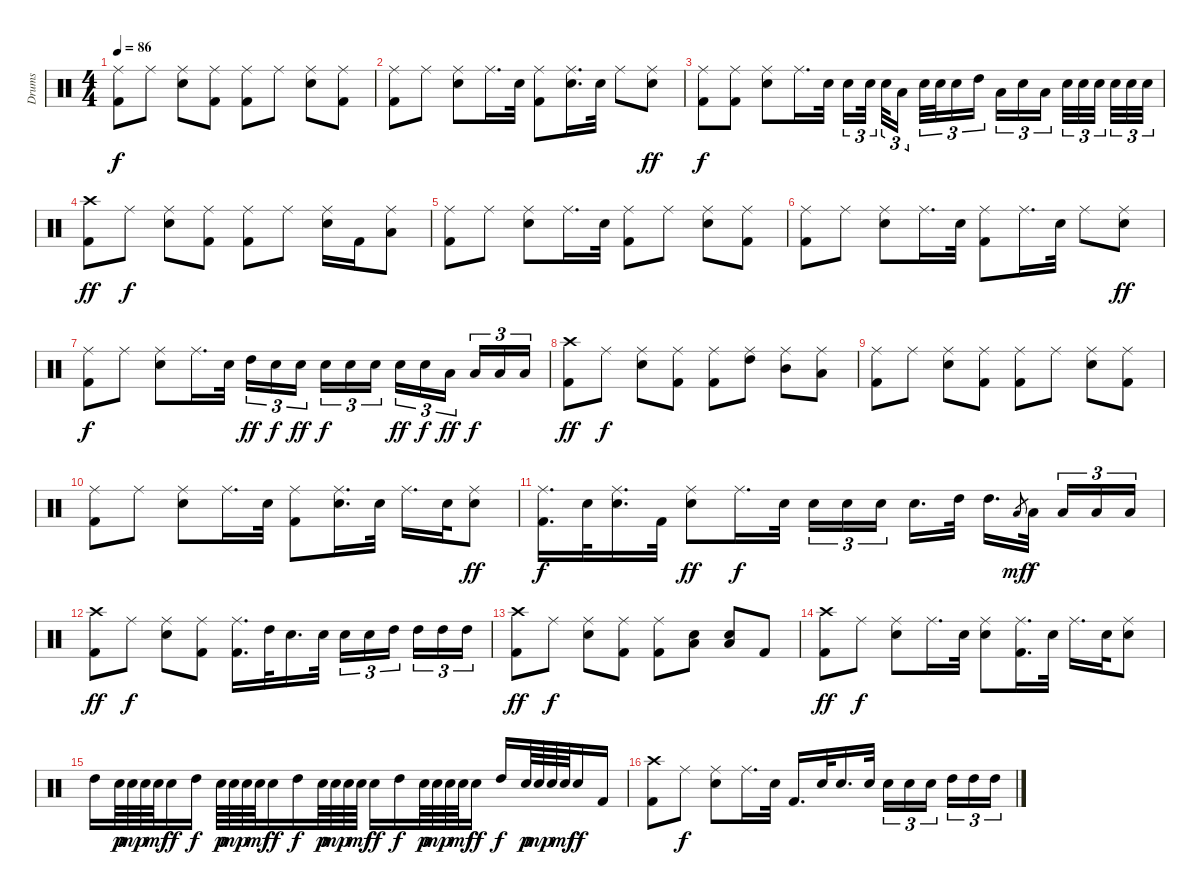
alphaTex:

\track ("Drums" "Drums") {instrument percussion}
\staff {score}
\articulation defaults
\ts (4 4)
\tempo 86
\clef neutral
\ks c
("Ride (middle)" "Kick (hit) 2").8{dy f} "Ride (middle)".8 ("Ride (middle)" "Electric Snare (hit)").8 ("Ride (middle)" "Kick (hit) 2").8 ("Ride (middle)" "Kick (hit) 2").8 "Ride (middle)".8 ("Ride (middle)" "Electric Snare (hit)").8 ("Ride (middle)" "Kick (hit) 2").8 |
("Ride (middle)" "Kick (hit) 2").8 "Ride (middle)".8 ("Ride (middle)" "Electric Snare (hit)").8 "Ride (middle)".16{d} "Electric Snare (hit)".32 ("Ride (middle)" "Kick (hit) 2").8 ("Ride (middle)" "Electric Snare (hit)").16{d} "Electric Snare (hit)".32 "Ride (middle)".8 ("Ride (middle)" "Electric Snare (hit)").8{dy ff} |
("Ride (middle)" "Kick (hit) 2").8{dy f} ("Ride (middle)" "Kick (hit) 2").8 ("Ride (middle)" "Electric Snare (hit)").8 "Ride (middle)".16{d} "Electric Snare (hit)".32 "Electric Snare (hit)".16{tu (3 2)} "Electric Snare (hit)".32{tu (3 2)} "Electric Snare (hit)".32{tu (3 2)} "Low Tom (hit)".16{tu (3 2)} "Electric Snare (hit)".32{tu (3 2)} "Electric Snare (hit)".32{tu (3 2)} "Electric Snare (hit)".16{tu (3 2)} "High Tom (hit)".16{tu (3 2)} "Low Tom (hit)".16{tu (3 2)} "Electric Snare (hit)".16{tu (3 2)} "Low Tom (hit)".16{tu (3 2)} "Electric Snare (hit)".32{tu (3 2)} "Electric Snare (hit)".32{tu (3 2)} "Electric Snare (hit)".32{tu (3 2)} "Electric Snare (hit)".32{tu (3 2)} "Electric Snare (hit)".32{tu (3 2)} "Electric Snare (hit)".32{tu (3 2)} |
("Crash high (hit)" "Kick (hit) 2").8{dy ff} "Ride (middle)".8{dy f} ("Ride (middle)" "Electric Snare (hit)").8 ("Ride (middle)" "Kick (hit) 2").8 ("Ride (middle)" "Kick (hit) 2").8 "Ride (middle)".8 ("Ride (middle)" "Electric Snare (hit)").16 "Kick (hit) 2".16 ("Ride (middle)" "Low Tom (hit)").8 |
("Ride (middle)" "Kick (hit) 2").8 "Ride (middle)".8 ("Ride (middle)" "Electric Snare (hit)").8 "Ride (middle)".16{d} "Electric Snare (hit)".32 ("Ride (middle)" "Kick (hit) 2").8 "Ride (middle)".8 ("Ride (middle)" "Electric Snare (hit)").8 ("Ride (middle)" "Kick (hit) 2").8 |
("Ride (middle)" "Kick (hit) 2").8 "Ride (middle)".8 ("Ride (middle)" "Electric Snare (hit)").8 "Ride (middle)".16{d} "Electric Snare (hit)".32 ("Ride (middle)" "Kick (hit) 2").8 "Ride (middle)".16{d} "Electric Snare (hit)".32 "Ride (middle)".8 ("Ride (middle)" "Electric Snare (hit)").8{dy ff} |
("Ride (middle)" "Kick (hit) 2").8{dy f} "Ride (middle)".8 ("Ride (middle)" "Electric Snare (hit)").8 "Ride (middle)".16{d} "Electric Snare (hit)".32 "High Tom (hit)".16{tu (3 2) dy ff} "Electric Snare (hit)".16{tu (3 2) dy f} "Electric Snare (hit)".16{tu (3 2) dy ff} "Electric Snare (hit)".16{tu (3 2) dy f} "Electric Snare (hit)".16{tu (3 2)} "Electric Snare (hit)".16{tu (3 2)} "Electric Snare (hit)".16{tu (3 2) dy ff} "Electric Snare (hit)".16{tu (3 2) dy f} "Low Tom (hit)".16{tu (3 2) dy ff} "Low Tom (hit)".16{tu (3 2) dy f} "Low Tom (hit)".16{tu (3 2)} "Low Tom (hit)".16{tu (3 2)} |
("Crash high (hit)" "Kick (hit) 2").8{dy ff} "Ride (middle)".8{dy f} ("Ride (middle)" "Electric Snare (hit)").8 ("Ride (middle)" "Kick (hit) 2").8 ("Ride (middle)" "Kick (hit) 2").8 ("Ride (middle)" "High Tom (hit)").8 ("Ride (middle)" "Mid Tom (hit)").8 ("Ride (middle)" "Low Tom (hit)").8 |
("Ride (middle)" "Kick (hit) 2").8 "Ride (middle)".8 ("Ride (middle)" "Electric Snare (hit)").8 ("Ride (middle)" "Kick (hit) 2").8 ("Ride (middle)" "Kick (hit) 2").8 "Ride (middle)".8 ("Ride (middle)" "Electric Snare (hit)").8 ("Ride (middle)" "Kick (hit) 2").8 |
("Ride (middle)" "Kick (hit) 2").8 "Ride (middle)".8 ("Ride (middle)" "Electric Snare (hit)").8 "Ride (middle)".16{d} "Electric Snare (hit)".32 ("Ride (middle)" "Kick (hit) 2").8 ("Ride (middle)" "Electric Snare (hit)").16{d} "Electric Snare (hit)".32 "Ride (middle)".16{d} "Electric Snare (hit)".32 ("Ride (middle)" "Electric Snare (hit)").8{dy ff} |
("Ride (middle)" "Kick (hit) 2").16{d dy f} "Electric Snare (hit)".32 ("Ride (middle)" "Electric Snare (hit)").16{d} "Kick (hit) 2".32 ("Ride (middle)" "Electric Snare (hit)").8{dy ff} "Ride (middle)".16{d dy f} "Electric Snare (hit)".32 "Electric Snare (hit)".16{tu (3 2)} "Electric Snare (hit)".16{tu (3 2)} "Electric Snare (hit)".16{tu (3 2)} "Electric Snare (hit)".16{d} "High Tom (hit)".32 "High Tom (hit)".16{d} "Low Tom (hit)".8{gr dy mf} "Low Tom (hit)".32{dy f} "Low Tom (hit)".16{tu (3 2)} "Low Tom (hit)".16{tu (3 2)} "Low Tom (hit)".16{tu (3 2)} |
("Crash high (hit)" "Kick (hit) 2").8{dy ff} "Ride (middle)".8{dy f} ("Ride (middle)" "Electric Snare (hit)").8 ("Ride (middle)" "Kick (hit) 2").8 ("Ride (middle)" "Kick (hit) 2").16{d} "High Tom (hit)".32 "Electric Snare (hit)".16{d} "Electric Snare (hit)".32 "Electric Snare (hit)".16{tu (3 2)} "Electric Snare (hit)".16{tu (3 2)} "High Tom (hit)".16{tu (3 2)} "High Tom (hit)".16{tu (3 2)} "High Tom (hit)".16{tu (3 2)} "High Tom (hit)".16{tu (3 2)} |
("Crash high (hit)" "Kick (hit) 2").8{dy ff} "Ride (middle)".8{dy f} ("Ride (middle)" "Electric Snare (hit)").8 ("Ride (middle)" "Kick (hit) 2").8 ("Ride (middle)" "Kick (hit) 2").8 ("Low Tom (hit)" "Electric Snare (hit)").8 ("Low Tom (hit)" "Electric Snare (hit)").8 "Kick (hit) 2".8 |
("Crash high (hit)" "Kick (hit) 2").8{dy ff} "Ride (middle)".8{dy f} ("Ride (middle)" "Electric Snare (hit)").8 "Ride (middle)".16{d} "Electric Snare (hit)".32 ("Ride (middle)" "Electric Snare (hit)").8 ("Ride (middle)" "Kick (hit) 2").16{d} "Electric Snare (hit)".32 "Ride (middle)".16{d} "Electric Snare (hit)".32 ("Ride (middle)" "Electric Snare (hit)").8 |
"High Tom (hit)".16 "Electric Snare (hit)".64{dy p} "Electric Snare (hit)".64{dy mp} "Electric Snare (hit)".64 "Electric Snare (hit)".64{dy mf} "Electric Snare (hit)".16{dy ff} "High Tom (hit)".16{dy f} "Electric Snare (hit)".64{dy p} "Electric Snare (hit)".64{dy mp} "Electric Snare (hit)".64 "Electric Snare (hit)".64{dy mf} "Electric Snare (hit)".16{dy ff} "High Tom (hit)".16{dy f} "Electric Snare (hit)".64{dy p} "Electric Snare (hit)".64{dy mp} "Electric Snare (hit)".64 "Electric Snare (hit)".64{dy mf} "Electric Snare (hit)".16{dy ff} "High Tom (hit)".16{dy f} "Electric Snare (hit)".64{dy p} "Electric Snare (hit)".64{dy mp} "Electric Snare (hit)".64 "Electric Snare (hit)".64{dy mf} "Electric Snare (hit)".16{dy ff} "High Tom (hit)".16{dy f} "Electric Snare (hit)".64{dy p} "Electric Snare (hit)".64{dy mp} "Electric Snare (hit)".64 "Electric Snare (hit)".64{dy mf} "Electric Snare (hit)".16{dy ff} "Kick (hit) 2".16 |
("Crash high (hit)" "Kick (hit) 2").8 "Ride (middle)".8{dy f} ("Ride (middle)" "Electric Snare (hit)").8 "Ride (middle)".16{d} "Electric Snare (hit)".32 "Kick (hit) 2".16{d} "Electric Snare (hit)".32 "Electric Snare (hit)".16{d} "Electric Snare (hit)".32 "Electric Snare (hit)".16{tu (3 2)} "Electric Snare (hit)".16{tu (3 2)} "Electric Snare (hit)".16{tu (3 2)} "High Tom (hit)".16{tu (3 2)} "High Tom (hit)".16{tu (3 2)} "High Tom (hit)".16{tu (3 2)}
